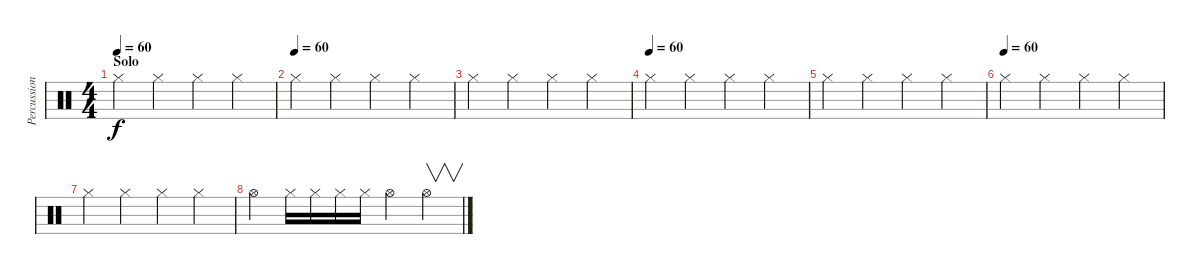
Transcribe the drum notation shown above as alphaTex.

\track ("Percussions" "Percussion") {instrument percussion}
\staff {score}
\articulation defaults
\ts (4 4)
\section ("" "Solo")
\tempo 60
\clef neutral
\ks c "Hi-Hat (closed)".4{dy f} "Hi-Hat (closed)".4 "Hi-Hat (closed)".4 "Hi-Hat (closed)".4
|
\tempo (60)
"Hi-Hat (closed)".4 "Hi-Hat (closed)".4 "Hi-Hat (closed)".4 "Hi-Hat (closed)".4 |
"Hi-Hat (closed)".4 "Hi-Hat (closed)".4 "Hi-Hat (closed)".4 "Hi-Hat (closed)".4 |
\tempo (60)
"Hi-Hat (closed)".4 "Hi-Hat (closed)".4 "Hi-Hat (closed)".4 "Hi-Hat (closed)".4 |
"Hi-Hat (closed)".4 "Hi-Hat (closed)".4 "Hi-Hat (closed)".4 "Hi-Hat (closed)".4 |
\tempo (60)
"Hi-Hat (closed)".4 "Hi-Hat (closed)".4 "Hi-Hat (closed)".4 "Hi-Hat (closed)".4 |
"Hi-Hat (closed)".4 "Hi-Hat (closed)".4 "Hi-Hat (closed)".4 "Hi-Hat (closed)".4 |
"Hi-Hat (open)".4 "Hi-Hat (closed)".16{volume 8} "Hi-Hat (closed)".16 "Hi-Hat (closed)".16{volume 10} "Hi-Hat (closed)".16 "Hi-Hat (open)".4{volume 13} "Hi-Hat (open)".4{v}
